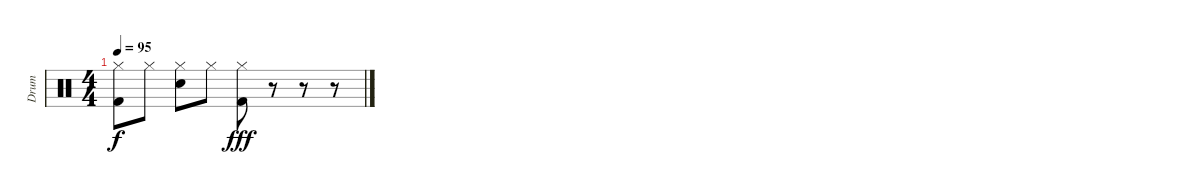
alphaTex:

\track ("Drum" "Drum") {instrument percussion}
\staff {score}
\articulation defaults
\ts (4 4)
\tempo 95
\clef neutral
\ks c
("Hi-Hat (closed)" "Kick (hit) 2").8{dy f} "Hi-Hat (closed)".8 ("Hi-Hat (closed)" "Electric Snare (hit)").8 "Hi-Hat (closed)".8 ("Hi-Hat (closed)" "Kick (hit) 2").8{dy fff} r.8 r.8 r.8
